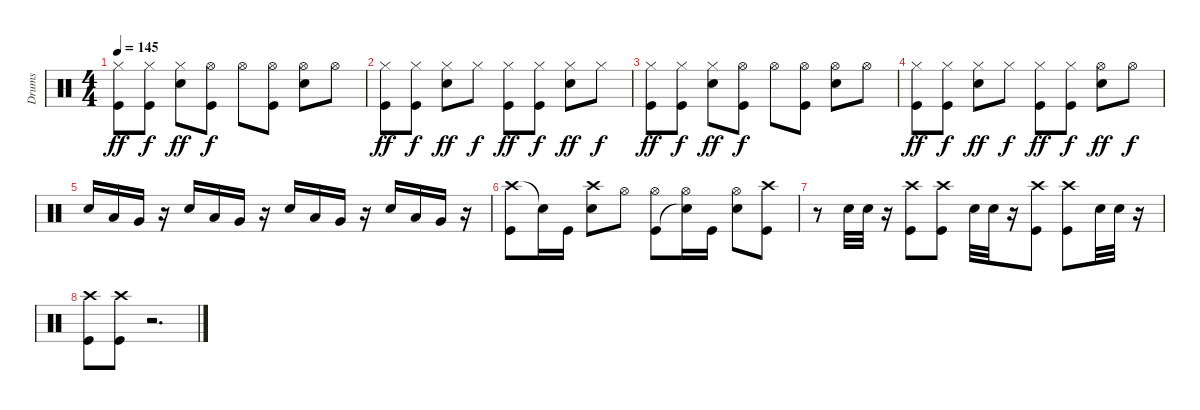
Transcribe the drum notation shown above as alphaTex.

\track ("Drums" "Drums") {instrument percussion}
\staff {score}
\articulation defaults
\ts (4 4)
\tempo 145
\clef neutral
\ks c
("Hi-Hat (closed)" "Kick (hit)").8{dy ff} ("Hi-Hat (closed)" "Kick (hit)").8{dy f} ("Hi-Hat (closed)" "Snare (hit) 2").8{dy ff} ("Hi-Hat (open)" "Kick (hit)").8{dy f} "Hi-Hat (open)".8 ("Hi-Hat (open)" "Kick (hit)").8 ("Hi-Hat (open)" "Snare (hit) 2").8 "Hi-Hat (open)".8 |
("Hi-Hat (closed)" "Kick (hit)").8{dy ff} ("Hi-Hat (closed)" "Kick (hit)").8{dy f} ("Hi-Hat (closed)" "Snare (hit) 2").8{dy ff} "Hi-Hat (closed)".8{dy f} ("Hi-Hat (closed)" "Kick (hit)").8{dy ff} ("Hi-Hat (closed)" "Kick (hit)").8{dy f} ("Hi-Hat (closed)" "Snare (hit) 2").8{dy ff} "Hi-Hat (closed)".8{dy f} |
("Hi-Hat (closed)" "Kick (hit)").8{dy ff} ("Hi-Hat (closed)" "Kick (hit)").8{dy f} ("Hi-Hat (closed)" "Snare (hit) 2").8{dy ff} ("Hi-Hat (open)" "Kick (hit)").8{dy f} "Hi-Hat (open)".8 ("Hi-Hat (open)" "Kick (hit)").8 ("Hi-Hat (open)" "Snare (hit) 2").8 "Hi-Hat (open)".8 |
("Hi-Hat (closed)" "Kick (hit)").8{dy ff} ("Hi-Hat (closed)" "Kick (hit)").8{dy f} ("Hi-Hat (closed)" "Snare (hit) 2").8{dy ff} "Hi-Hat (closed)".8{dy f} ("Hi-Hat (closed)" "Kick (hit)").8{dy ff} ("Hi-Hat (closed)" "Kick (hit)").8{dy f} ("Hi-Hat (open)" "Snare (hit) 2").8{dy ff} "Hi-Hat (open)".8{dy f} |
"Snare (hit) 2".16 "Low Tom (hit)".16 "Very Low Tom (hit)".16 r.16 "Snare (hit) 2".16 "Low Tom (hit)".16 "Very Low Tom (hit)".16 r.16 "Snare (hit) 2".16 "Low Tom (hit)".16 "Very Low Tom (hit)".16 r.16 "Snare (hit) 2".16 "Low Tom (hit)".16 "Very Low Tom (hit)".16 r.16 |
("Crash high (hit)" "Kick (hit)").8 "Snare (hit) 2"{t}.16 "Kick (hit)".16 ("Crash high (hit)" "Snare (hit) 2").8 "Hi-Hat (open)".8 ("Hi-Hat (open)" "Kick (hit)").8 ("Hi-Hat (open)" "Snare (hit)"{t}).16 "Kick (hit)".16 ("Hi-Hat (open)" "Snare (hit) 2").8 ("Crash high (hit)" "Kick (hit)").8 |
r.8 "Snare (hit) 2".32 "Snare (hit) 2".32 r.16 ("Crash high (hit)" "Kick (hit)").8 ("Crash high (hit)" "Kick (hit)").8 "Snare (hit) 2".32 "Snare (hit) 2".32 r.16 ("Crash high (hit)" "Kick (hit)").8 ("Crash high (hit)" "Kick (hit)").8 "Snare (hit) 2".32 "Snare (hit) 2".32 r.16 |
("Crash high (hit)" "Kick (hit)").8 ("Crash high (hit)" "Kick (hit)").8 r.2{d}
